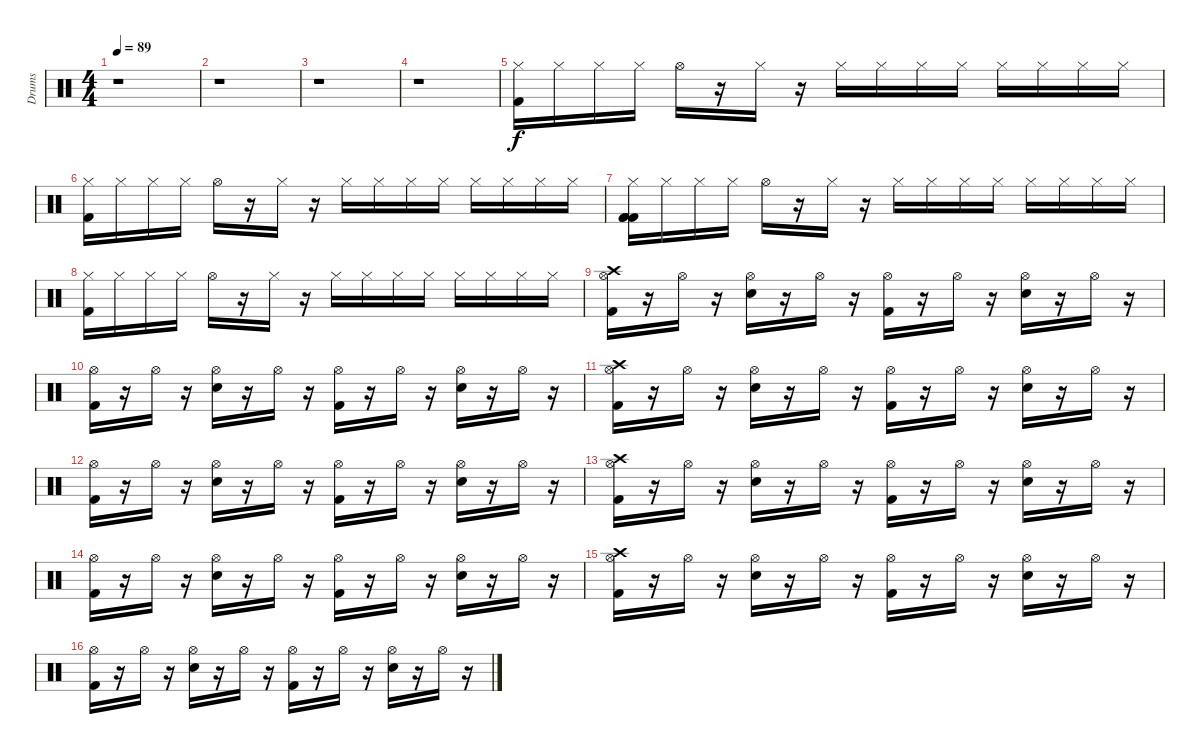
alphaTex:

\track ("Drums " "Drums ") {instrument percussion}
\staff {score}
\articulation defaults
\ts (4 4)
\tempo 89
\clef neutral
\ks c
r.1{dy f} |
r.1 |
r.1 |
r.1 |
("Hi-Hat (closed)" "Kick (hit) 2").16 "Hi-Hat (closed)".16 "Hi-Hat (closed)".16 "Hi-Hat (closed)".16 "Hi-Hat (open)".16 r.16 "Hi-Hat (closed)".16 r.16 "Hi-Hat (closed)".16 "Hi-Hat (closed)".16 "Hi-Hat (closed)".16 "Hi-Hat (closed)".16 "Hi-Hat (closed)".16 "Hi-Hat (closed)".16 "Hi-Hat (closed)".16 "Hi-Hat (closed)".16 |
("Hi-Hat (closed)" "Kick (hit) 2").16 "Hi-Hat (closed)".16 "Hi-Hat (closed)".16 "Hi-Hat (closed)".16 "Hi-Hat (open)".16 r.16 "Hi-Hat (closed)".16 r.16 "Hi-Hat (closed)".16 "Hi-Hat (closed)".16 "Hi-Hat (closed)".16 "Hi-Hat (closed)".16 "Hi-Hat (closed)".16 "Hi-Hat (closed)".16 "Hi-Hat (closed)".16 "Hi-Hat (closed)".16 |
("Kick (hit) 2" "Kick (hit) 2" "Hi-Hat (closed)" "Kick (hit) 2").16 "Hi-Hat (closed)".16 "Hi-Hat (closed)".16 "Hi-Hat (closed)".16 "Hi-Hat (open)".16 r.16 "Hi-Hat (closed)".16 r.16 "Hi-Hat (closed)".16 "Hi-Hat (closed)".16 "Hi-Hat (closed)".16 "Hi-Hat (closed)".16 "Hi-Hat (closed)".16 "Hi-Hat (closed)".16 "Hi-Hat (closed)".16 "Hi-Hat (closed)".16 |
("Hi-Hat (closed)" "Kick (hit) 2").16 "Hi-Hat (closed)".16 "Hi-Hat (closed)".16 "Hi-Hat (closed)".16 "Hi-Hat (open)".16 r.16 "Hi-Hat (closed)".16 r.16 "Hi-Hat (closed)".16 "Hi-Hat (closed)".16 "Hi-Hat (closed)".16 "Hi-Hat (closed)".16 "Hi-Hat (closed)".16 "Hi-Hat (closed)".16 "Hi-Hat (closed)".16 "Hi-Hat (closed)".16 |
("Kick (hit) 2" "Crash high (hit)" "Hi-Hat (open)").16 r.16 "Hi-Hat (open)".16 r.16 ("Snare (hit) 2" "Hi-Hat (open)").16 r.16 "Hi-Hat (open)".16 r.16 ("Kick (hit) 2" "Hi-Hat (open)").16 r.16 "Hi-Hat (open)".16 r.16 ("Snare (hit) 2" "Hi-Hat (open)").16 r.16 "Hi-Hat (open)".16 r.16 |
("Kick (hit) 2" "Hi-Hat (open)").16 r.16 "Hi-Hat (open)".16 r.16 ("Snare (hit) 2" "Hi-Hat (open)").16 r.16 "Hi-Hat (open)".16 r.16 ("Kick (hit) 2" "Hi-Hat (open)").16 r.16 "Hi-Hat (open)".16 r.16 ("Snare (hit) 2" "Hi-Hat (open)").16 r.16 "Hi-Hat (open)".16 r.16 |
("Kick (hit) 2" "Crash high (hit)" "Hi-Hat (open)").16 r.16 "Hi-Hat (open)".16 r.16 ("Snare (hit) 2" "Hi-Hat (open)").16 r.16 "Hi-Hat (open)".16 r.16 ("Kick (hit) 2" "Hi-Hat (open)").16 r.16 "Hi-Hat (open)".16 r.16 ("Snare (hit) 2" "Hi-Hat (open)").16 r.16 "Hi-Hat (open)".16 r.16 |
("Kick (hit) 2" "Hi-Hat (open)").16 r.16 "Hi-Hat (open)".16 r.16 ("Snare (hit) 2" "Hi-Hat (open)").16 r.16 "Hi-Hat (open)".16 r.16 ("Kick (hit) 2" "Hi-Hat (open)").16 r.16 "Hi-Hat (open)".16 r.16 ("Snare (hit) 2" "Hi-Hat (open)").16 r.16 "Hi-Hat (open)".16 r.16 |
("Kick (hit) 2" "Crash high (hit)" "Hi-Hat (open)").16 r.16 "Hi-Hat (open)".16 r.16 ("Snare (hit) 2" "Hi-Hat (open)").16 r.16 "Hi-Hat (open)".16 r.16 ("Kick (hit) 2" "Hi-Hat (open)").16 r.16 "Hi-Hat (open)".16 r.16 ("Snare (hit) 2" "Hi-Hat (open)").16 r.16 "Hi-Hat (open)".16 r.16 |
("Kick (hit) 2" "Hi-Hat (open)").16 r.16 "Hi-Hat (open)".16 r.16 ("Snare (hit) 2" "Hi-Hat (open)").16 r.16 "Hi-Hat (open)".16 r.16 ("Kick (hit) 2" "Hi-Hat (open)").16 r.16 "Hi-Hat (open)".16 r.16 ("Snare (hit) 2" "Hi-Hat (open)").16 r.16 "Hi-Hat (open)".16 r.16 |
("Kick (hit) 2" "Crash high (hit)" "Hi-Hat (open)").16 r.16 "Hi-Hat (open)".16 r.16 ("Snare (hit) 2" "Hi-Hat (open)").16 r.16 "Hi-Hat (open)".16 r.16 ("Kick (hit) 2" "Hi-Hat (open)").16 r.16 "Hi-Hat (open)".16 r.16 ("Snare (hit) 2" "Hi-Hat (open)").16 r.16 "Hi-Hat (open)".16 r.16 |
("Kick (hit) 2" "Hi-Hat (open)").16 r.16 "Hi-Hat (open)".16 r.16 ("Snare (hit) 2" "Hi-Hat (open)").16 r.16 "Hi-Hat (open)".16 r.16 ("Kick (hit) 2" "Hi-Hat (open)").16 r.16 "Hi-Hat (open)".16 r.16 ("Snare (hit) 2" "Hi-Hat (open)").16 r.16 "Hi-Hat (open)".16 r.16
